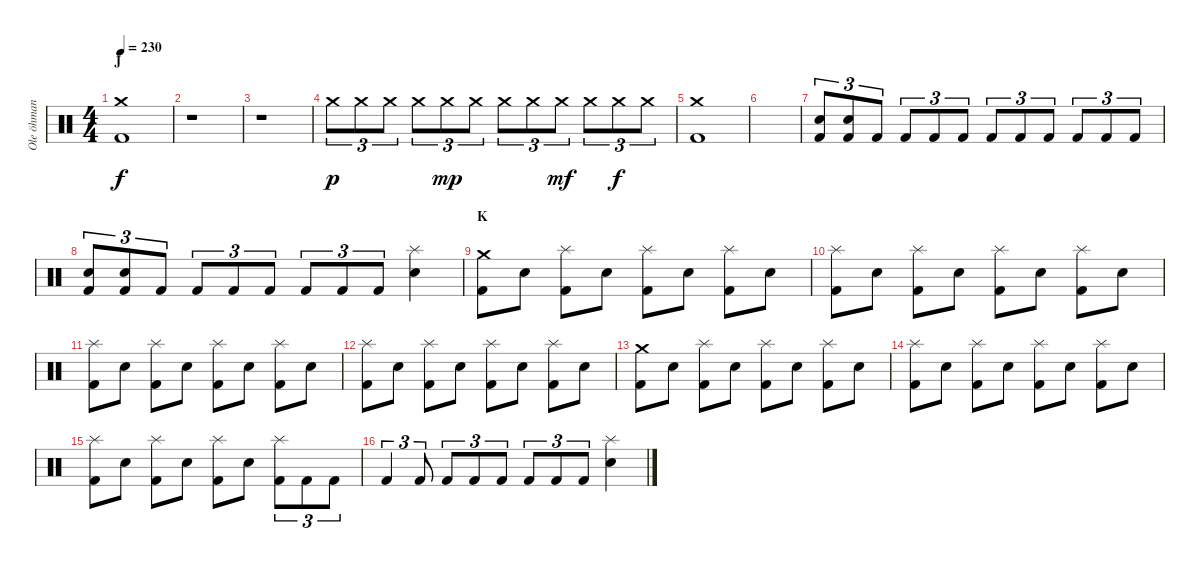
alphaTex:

\track ("Ole öhman" "Ole öhman") {instrument percussion}
\staff {score}
\articulation defaults
\ts (4 4)
\section ("" "J")
\tempo 230
\clef neutral
\ks c
("Crash medium (hit)" "Kick (hit) 2").1{dy f} |
r.1 |
r.1 |
"Crash medium (hit)".8{tu (3 2) dy p} "Crash medium (hit)".8{tu (3 2)} "Crash medium (hit)".8{tu (3 2)} "Crash medium (hit)".8{tu (3 2)} "Crash medium (hit)".8{tu (3 2) dy mp} "Crash medium (hit)".8{tu (3 2)} "Crash medium (hit)".8{tu (3 2)} "Crash medium (hit)".8{tu (3 2)} "Crash medium (hit)".8{tu (3 2) dy mf} "Crash medium (hit)".8{tu (3 2)} "Crash medium (hit)".8{tu (3 2) dy f} "Crash medium (hit)".8{tu (3 2)} |
("Crash medium (hit)" "Kick (hit) 2").1 |
|
("Electric Snare (hit)" "Kick (hit) 2").8{tu (3 2)} ("Electric Snare (hit)" "Kick (hit) 2").8{tu (3 2)} "Kick (hit) 2".8{tu (3 2)} "Kick (hit) 2".8{tu (3 2)} "Kick (hit) 2".8{tu (3 2)} "Kick (hit) 2".8{tu (3 2)} "Kick (hit) 2".8{tu (3 2)} "Kick (hit) 2".8{tu (3 2)} "Kick (hit) 2".8{tu (3 2)} "Kick (hit) 2".8{tu (3 2)} "Kick (hit) 2".8{tu (3 2)} "Kick (hit) 2".8{tu (3 2)} |
("Electric Snare (hit)" "Kick (hit) 2").8{tu (3 2)} ("Electric Snare (hit)" "Kick (hit) 2").8{tu (3 2)} "Kick (hit) 2".8{tu (3 2)} "Kick (hit) 2".8{tu (3 2)} "Kick (hit) 2".8{tu (3 2)} "Kick (hit) 2".8{tu (3 2)} "Kick (hit) 2".8{tu (3 2)} "Kick (hit) 2".8{tu (3 2)} "Kick (hit) 2".8{tu (3 2)} ("Splash (hit)" "Electric Snare (hit)").4 |
\section ("" "K")
("Crash medium (hit)" "Kick (hit) 2").8 "Electric Snare (hit)".8 ("Splash (hit)" "Kick (hit) 2").8 "Electric Snare (hit)".8 ("Splash (hit)" "Kick (hit) 2").8 "Electric Snare (hit)".8 ("Splash (hit)" "Kick (hit) 2").8 "Electric Snare (hit)".8 |
("Splash (hit)" "Kick (hit) 2").8 "Electric Snare (hit)".8 ("Splash (hit)" "Kick (hit) 2").8 "Electric Snare (hit)".8 ("Splash (hit)" "Kick (hit) 2").8 "Electric Snare (hit)".8 ("Splash (hit)" "Kick (hit) 2").8 "Electric Snare (hit)".8 |
("Splash (hit)" "Kick (hit) 2").8 "Electric Snare (hit)".8 ("Splash (hit)" "Kick (hit) 2").8 "Electric Snare (hit)".8 ("Splash (hit)" "Kick (hit) 2").8 "Electric Snare (hit)".8 ("Splash (hit)" "Kick (hit) 2").8 "Electric Snare (hit)".8 |
("Splash (hit)" "Kick (hit) 2").8 "Electric Snare (hit)".8 ("Splash (hit)" "Kick (hit) 2").8 "Electric Snare (hit)".8 ("Splash (hit)" "Kick (hit) 2").8 "Electric Snare (hit)".8 ("Splash (hit)" "Kick (hit) 2").8 "Electric Snare (hit)".8 |
("Crash medium (hit)" "Kick (hit) 2").8 "Electric Snare (hit)".8 ("Splash (hit)" "Kick (hit) 2").8 "Electric Snare (hit)".8 ("Splash (hit)" "Kick (hit) 2").8 "Electric Snare (hit)".8 ("Splash (hit)" "Kick (hit) 2").8 "Electric Snare (hit)".8 |
("Splash (hit)" "Kick (hit) 2").8 "Electric Snare (hit)".8 ("Splash (hit)" "Kick (hit) 2").8 "Electric Snare (hit)".8 ("Splash (hit)" "Kick (hit) 2").8 "Electric Snare (hit)".8 ("Splash (hit)" "Kick (hit) 2").8 "Electric Snare (hit)".8 |
("Splash (hit)" "Kick (hit) 2").8 "Electric Snare (hit)".8 ("Splash (hit)" "Kick (hit) 2").8 "Electric Snare (hit)".8 ("Splash (hit)" "Kick (hit) 2").8 "Electric Snare (hit)".8 ("Splash (hit)" "Kick (hit) 2").8{tu (3 2)} "Kick (hit) 2".8{tu (3 2)} "Kick (hit) 2".8{tu (3 2)} |
"Kick (hit) 2".4{tu (3 2)} "Kick (hit) 2".8{tu (3 2)} "Kick (hit) 2".8{tu (3 2)} "Kick (hit) 2".8{tu (3 2)} "Kick (hit) 2".8{tu (3 2)} "Kick (hit) 2".8{tu (3 2)} "Kick (hit) 2".8{tu (3 2)} "Kick (hit) 2".8{tu (3 2)} ("Splash (hit)" "Electric Snare (hit)").4
